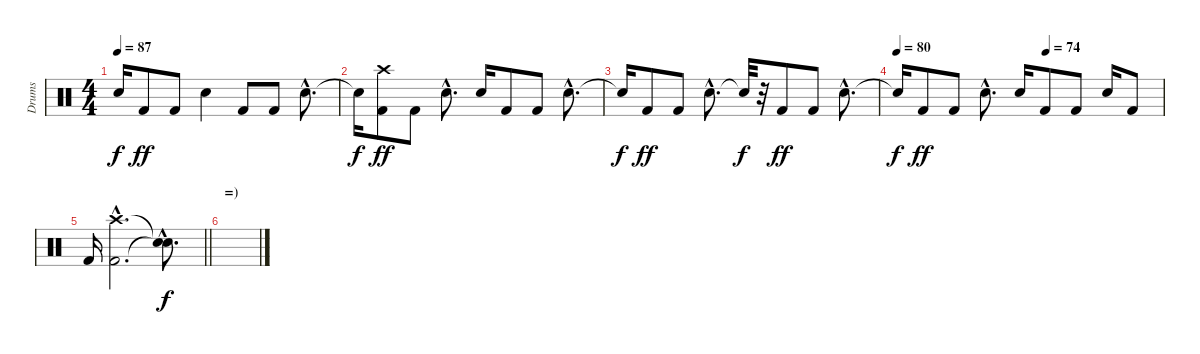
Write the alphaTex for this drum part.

\track ("Drums" "Drums") {instrument percussion}
\staff {score}
\articulation defaults
\ts (4 4)
\tempo 87
\clef neutral
\ks c "Snare (hit)"{t}.16{dy f} "Kick (hit) 2".8{dy ff} "Kick (hit) 2".8 "Electric Snare (hit)".4 "Kick (hit) 2".8 "Kick (hit) 2".8 "Electric Snare (hit)"{hac}.8{d}
|
"Snare (hit)"{t}.16{dy f} ("Kick (hit) 2" "Crash high (hit)").8{dy ff} "Kick (hit) 2".8 "Electric Snare (hit)"{hac}.8{d} "Electric Snare (hit)".16 "Kick (hit) 2".8 "Kick (hit) 2".8 "Electric Snare (hit)"{hac}.8{d} |
"Snare (hit)"{t}.16{dy f} "Kick (hit) 2".8{dy ff} "Kick (hit) 2".8 "Electric Snare (hit)"{hac}.8{d} "Snare (hit)"{t}.32{dy f} r.32 "Kick (hit) 2".8{dy ff} "Kick (hit) 2".8 "Electric Snare (hit)"{hac}.8{d} |
\tempo 80
\tempo (74 0.5625)
"Snare (hit)"{t}.16{dy f} "Kick (hit) 2".8{dy ff} "Kick (hit) 2".8 "Electric Snare (hit)"{hac}.8{d} "Electric Snare (hit)".16 "Kick (hit) 2".8 "Kick (hit) 2".8 "Electric Snare (hit)".16 "Kick (hit) 2".8 |
\barLineRight lightlight "Kick (hit) 2".16
("Kick (hit) 2"{hac} "Crash high (hit)"{hac}).2{d} ("Snare (hit)"{hac t} "Snare (hit)"{hac t}).8{d dy f} |
\section ("" "=)")
